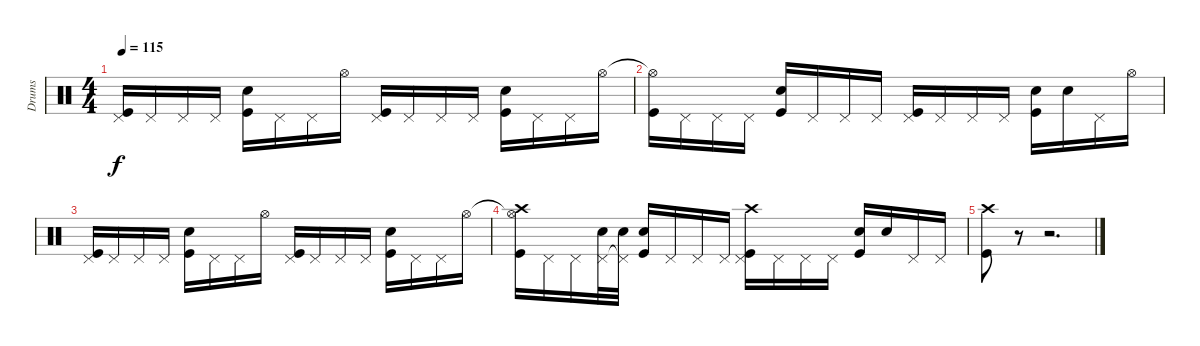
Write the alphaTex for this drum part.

\track ("Drums" "Drums") {instrument percussion}
\staff {score}
\articulation defaults
\ts (4 4)
\tempo 115
\clef neutral
\ks c
("Pedal Hi-Hat (hit)" "Kick (hit)").16{dy f} "Pedal Hi-Hat (hit)".16 "Pedal Hi-Hat (hit)".16 "Pedal Hi-Hat (hit)".16 ("Snare (hit) 2" "Kick (hit)").16 "Pedal Hi-Hat (hit)".16 "Pedal Hi-Hat (hit)".16 "Hi-Hat (open)".16 ("Pedal Hi-Hat (hit)" "Kick (hit)").16 "Pedal Hi-Hat (hit)".16 "Pedal Hi-Hat (hit)".16 "Pedal Hi-Hat (hit)".16 ("Snare (hit) 2" "Kick (hit)").16 "Pedal Hi-Hat (hit)".16 "Pedal Hi-Hat (hit)".16 "Hi-Hat (open)".16 |
("Hi-Hat (open)"{t} "Kick (hit)").16 "Pedal Hi-Hat (hit)".16 "Pedal Hi-Hat (hit)".16 "Pedal Hi-Hat (hit)".16 ("Snare (hit) 2" "Kick (hit)").16 "Pedal Hi-Hat (hit)".16 "Pedal Hi-Hat (hit)".16 "Pedal Hi-Hat (hit)".16 ("Pedal Hi-Hat (hit)" "Kick (hit)").16 "Pedal Hi-Hat (hit)".16 "Pedal Hi-Hat (hit)".16 "Pedal Hi-Hat (hit)".16 ("Snare (hit) 2" "Kick (hit)").16 "Snare (hit) 2".16 "Pedal Hi-Hat (hit)".16 "Hi-Hat (open)".16 |
("Pedal Hi-Hat (hit)" "Kick (hit)").16 "Pedal Hi-Hat (hit)".16 "Pedal Hi-Hat (hit)".16 "Pedal Hi-Hat (hit)".16 ("Snare (hit) 2" "Kick (hit)").16 "Pedal Hi-Hat (hit)".16 "Pedal Hi-Hat (hit)".16 "Hi-Hat (open)".16 ("Pedal Hi-Hat (hit)" "Kick (hit)").16 "Pedal Hi-Hat (hit)".16 "Pedal Hi-Hat (hit)".16 "Pedal Hi-Hat (hit)".16 ("Snare (hit) 2" "Kick (hit)").16 "Pedal Hi-Hat (hit)".16 "Pedal Hi-Hat (hit)".16 "Hi-Hat (open)".16 |
("Hi-Hat (open)"{t} "Crash high (hit)" "Kick (hit)").16 "Pedal Hi-Hat (hit)".16 "Pedal Hi-Hat (hit)".16 ("Pedal Hi-Hat (hit)" "Snare (hit) 2").32 ("Pedal Hi-Hat (hit)"{t} "Snare (hit) 2").32 ("Snare (hit) 2" "Kick (hit)").16 "Pedal Hi-Hat (hit)".16 "Pedal Hi-Hat (hit)".16 "Pedal Hi-Hat (hit)".16 ("Pedal Hi-Hat (hit)" "Crash high (hit)" "Kick (hit)").16 "Pedal Hi-Hat (hit)".16 "Pedal Hi-Hat (hit)".16 "Pedal Hi-Hat (hit)".16 ("Snare (hit) 2" "Kick (hit)").16 "Snare (hit) 2".16 "Pedal Hi-Hat (hit)".16 "Pedal Hi-Hat (hit)".16 |
("Crash high (hit)" "Kick (hit)").8 r.8 r.2{d}
